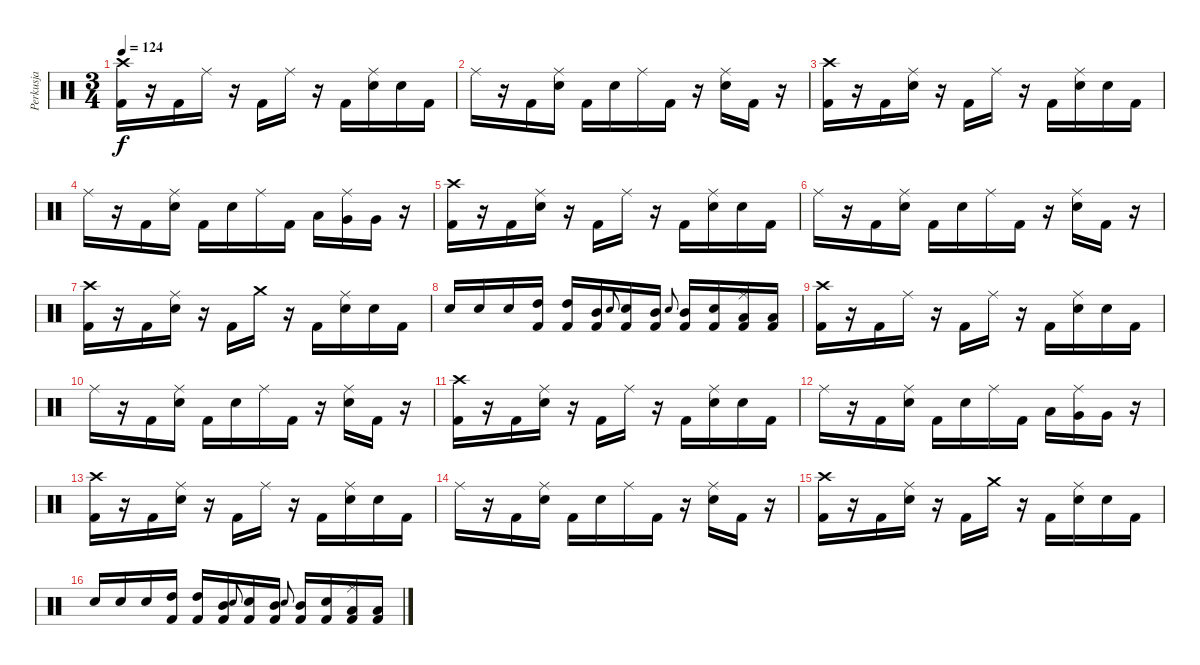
\track ("Perkusja" "Perkusja") {instrument percussion}
\staff {score}
\articulation defaults
\ts (3 4)
\tempo 124
\clef neutral
\ks c
("Crash high (hit)" "Kick (hit) 2").16{dy f} r.16 "Kick (hit) 2".16 "Ride (middle)".16 r.16 "Kick (hit) 2".16 "Ride (middle)".16 r.16 "Kick (hit) 2".16 ("Ride (middle)" "Electric Snare (hit)").16 "Electric Snare (hit)".16 "Kick (hit) 2".16 |
"Ride (middle)".16 r.16 "Kick (hit) 2".16 ("Ride (middle)" "Electric Snare (hit)").16 "Kick (hit) 2".16 "Electric Snare (hit)".16 "Ride (middle)".16 "Kick (hit) 2".16 r.16 ("Ride (middle)" "Electric Snare (hit)").16 "Kick (hit) 2".16 r.16 |
("Crash high (hit)" "Kick (hit) 2").16 r.16 "Kick (hit) 2".16 ("Ride (middle)" "Electric Snare (hit)").16 r.16 "Kick (hit) 2".16 "Ride (middle)".16 r.16 "Kick (hit) 2".16 ("Ride (middle)" "Electric Snare (hit)").16 "Electric Snare (hit)".16 "Kick (hit) 2".16 |
"Ride (middle)".16 r.16 "Kick (hit) 2".16 ("Ride (middle)" "Electric Snare (hit)").16 "Kick (hit) 2".16 "Electric Snare (hit)".16 "Ride (middle)".16 "Kick (hit) 2".16 "Low Tom (hit)".16 ("Ride (middle)" "Very Low Tom (hit)").16 "Very Low Tom (hit)".16 r.16 |
("Crash high (hit)" "Kick (hit) 2").16 r.16 "Kick (hit) 2".16 ("Ride (middle)" "Electric Snare (hit)").16 r.16 "Kick (hit) 2".16 "Ride (middle)".16 r.16 "Kick (hit) 2".16 ("Ride (middle)" "Electric Snare (hit)").16 "Electric Snare (hit)".16 "Kick (hit) 2".16 |
"Ride (middle)".16 r.16 "Kick (hit) 2".16 ("Ride (middle)" "Electric Snare (hit)").16 "Kick (hit) 2".16 "Electric Snare (hit)".16 "Ride (middle)".16 "Kick (hit) 2".16 r.16 ("Ride (middle)" "Electric Snare (hit)").16 "Kick (hit) 2".16 r.16 |
("Crash high (hit)" "Kick (hit) 2").16 r.16 "Kick (hit) 2".16 ("Ride (middle)" "Electric Snare (hit)").16 r.16 "Kick (hit) 2".16 "Crash medium (hit)".16 r.16 "Kick (hit) 2".16 ("Ride (middle)" "Electric Snare (hit)").16 "Electric Snare (hit)".16 "Kick (hit) 2".16 |
"Electric Snare (hit)".16 "Electric Snare (hit)".16 "Electric Snare (hit)".16 ("High Tom (hit)" "Kick (hit) 2").16 ("High Tom (hit)" "Kick (hit) 2").16 ("Mid Tom (hit)" "Kick (hit) 2").16 "Electric Snare (hit)".8{gr onbeat} ("Electric Snare (hit)" "Kick (hit) 2").16 ("Mid Tom (hit)" "Kick (hit) 2").16 "Electric Snare (hit)".8{gr onbeat} ("Mid Tom (hit)" "Kick (hit) 2").16 ("Electric Snare (hit)" "Kick (hit) 2").16 ("Ride (middle)" "Low Floor Tom (hit)" "Kick (hit) 2").16 ("Low Floor Tom (hit)" "Kick (hit) 2").16 |
("Crash high (hit)" "Kick (hit) 2").16 r.16 "Kick (hit) 2".16 "Ride (middle)".16 r.16 "Kick (hit) 2".16 "Ride (middle)".16 r.16 "Kick (hit) 2".16 ("Ride (middle)" "Electric Snare (hit)").16 "Electric Snare (hit)".16 "Kick (hit) 2".16 |
"Ride (middle)".16 r.16 "Kick (hit) 2".16 ("Ride (middle)" "Electric Snare (hit)").16 "Kick (hit) 2".16 "Electric Snare (hit)".16 "Ride (middle)".16 "Kick (hit) 2".16 r.16 ("Ride (middle)" "Electric Snare (hit)").16 "Kick (hit) 2".16 r.16 |
("Crash high (hit)" "Kick (hit) 2").16 r.16 "Kick (hit) 2".16 ("Ride (middle)" "Electric Snare (hit)").16 r.16 "Kick (hit) 2".16 "Ride (middle)".16 r.16 "Kick (hit) 2".16 ("Ride (middle)" "Electric Snare (hit)").16 "Electric Snare (hit)".16 "Kick (hit) 2".16 |
"Ride (middle)".16 r.16 "Kick (hit) 2".16 ("Ride (middle)" "Electric Snare (hit)").16 "Kick (hit) 2".16 "Electric Snare (hit)".16 "Ride (middle)".16 "Kick (hit) 2".16 "Low Tom (hit)".16 ("Ride (middle)" "Very Low Tom (hit)").16 "Very Low Tom (hit)".16 r.16 |
("Crash high (hit)" "Kick (hit) 2").16 r.16 "Kick (hit) 2".16 ("Ride (middle)" "Electric Snare (hit)").16 r.16 "Kick (hit) 2".16 "Ride (middle)".16 r.16 "Kick (hit) 2".16 ("Ride (middle)" "Electric Snare (hit)").16 "Electric Snare (hit)".16 "Kick (hit) 2".16 |
"Ride (middle)".16 r.16 "Kick (hit) 2".16 ("Ride (middle)" "Electric Snare (hit)").16 "Kick (hit) 2".16 "Electric Snare (hit)".16 "Ride (middle)".16 "Kick (hit) 2".16 r.16 ("Ride (middle)" "Electric Snare (hit)").16 "Kick (hit) 2".16 r.16 |
("Crash high (hit)" "Kick (hit) 2").16 r.16 "Kick (hit) 2".16 ("Ride (middle)" "Electric Snare (hit)").16 r.16 "Kick (hit) 2".16 "Crash medium (hit)".16 r.16 "Kick (hit) 2".16 ("Ride (middle)" "Electric Snare (hit)").16 "Electric Snare (hit)".16 "Kick (hit) 2".16 |
"Electric Snare (hit)".16 "Electric Snare (hit)".16 "Electric Snare (hit)".16 ("High Tom (hit)" "Kick (hit) 2").16 ("High Tom (hit)" "Kick (hit) 2").16 ("Mid Tom (hit)" "Kick (hit) 2").16 "Electric Snare (hit)".8{gr onbeat} ("Electric Snare (hit)" "Kick (hit) 2").16 ("Mid Tom (hit)" "Kick (hit) 2").16 "Electric Snare (hit)".8{gr onbeat} ("Mid Tom (hit)" "Kick (hit) 2").16 ("Electric Snare (hit)" "Kick (hit) 2").16 ("Ride (middle)" "Low Floor Tom (hit)" "Kick (hit) 2").16 ("Low Floor Tom (hit)" "Kick (hit) 2").16
